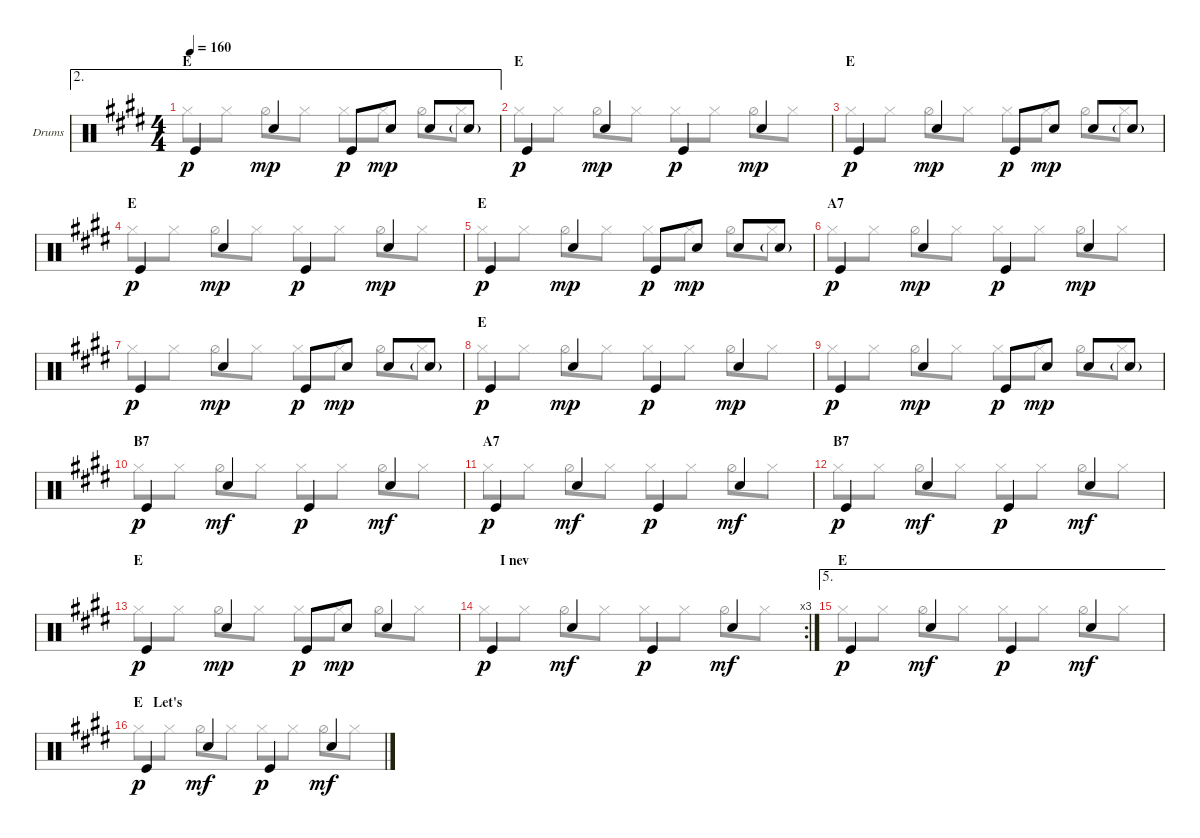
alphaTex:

\defaultSystemsLayout 4
\bracketExtendMode groupsimilarinstruments
\firstSystemTrackNameOrientation horizontal
\otherSystemsTrackNameOrientation horizontal
\track ("Drumkit" "Drums") {instrument percussion}
\staff {score}
\articulation defaults
\voice
\ae 2
\ts (4 4)
\section ("" "E")
\tempo 160
\clef neutral
\ks e "Kick (hit)".4{dy p} "Snare (hit) 2".4{dy mp} "Kick (hit)".8{dy p} "Snare (hit) 2".8{dy mp} "Snare (hit) 2".8 "Snare (hit) 2"{g}.8
|
\section ("" "E")
"Kick (hit)".4{dy p} "Snare (hit) 2".4{dy mp} "Kick (hit)".4{dy p} "Snare (hit) 2".4{dy mp} |
\section ("" "E")
"Kick (hit)".4{dy p} "Snare (hit) 2".4{dy mp} "Kick (hit)".8{dy p} "Snare (hit) 2".8{dy mp} "Snare (hit) 2".8 "Snare (hit) 2"{g}.8 |
\section ("" "E")
"Kick (hit)".4{dy p} "Snare (hit) 2".4{dy mp} "Kick (hit)".4{dy p} "Snare (hit) 2".4{dy mp} |
\section ("" "E")
"Kick (hit)".4{dy p} "Snare (hit) 2".4{dy mp} "Kick (hit)".8{dy p} "Snare (hit) 2".8{dy mp} "Snare (hit) 2".8 "Snare (hit) 2"{g}.8 |
\section ("" "A7")
"Kick (hit)".4{dy p} "Snare (hit) 2".4{dy mp} "Kick (hit)".4{dy p} "Snare (hit) 2".4{dy mp} |
"Kick (hit)".4{dy p} "Snare (hit) 2".4{dy mp} "Kick (hit)".8{dy p} "Snare (hit) 2".8{dy mp} "Snare (hit) 2".8 "Snare (hit) 2"{g}.8 |
\section ("" "E")
"Kick (hit)".4{dy p} "Snare (hit) 2".4{dy mp} "Kick (hit)".4{dy p} "Snare (hit) 2".4{dy mp} |
"Kick (hit)".4{dy p} "Snare (hit) 2".4{dy mp} "Kick (hit)".8{dy p} "Snare (hit) 2".8{dy mp} "Snare (hit) 2".8 "Snare (hit) 2"{g}.8 |
\section ("" "B7")
"Kick (hit)".4{dy p} "Snare (hit) 2".4{dy mf} "Kick (hit)".4{dy p} "Snare (hit) 2".4{dy mf} |
\section ("" "A7")
"Kick (hit)".4{dy p} "Snare (hit) 2".4{dy mf} "Kick (hit)".4{dy p} "Snare (hit) 2".4{dy mf} |
\section ("" "B7")
"Kick (hit)".4{dy p} "Snare (hit) 2".4{dy mf} "Kick (hit)".4{dy p} "Snare (hit) 2".4{dy mf} |
\section ("" "E")
"Kick (hit)".4{dy p} "Snare (hit) 2".4{dy mp} "Kick (hit)".8{dy p} "Snare (hit) 2".8{dy mp} "Snare (hit) 2".4 |
\rc 3
\section ("" "      I nev")
"Kick (hit)".4{dy p} "Snare (hit) 2".4{dy mf} "Kick (hit)".4{dy p} "Snare (hit) 2".4{dy mf} |
\ae 5
\section ("" "E")
"Kick (hit)".4{dy p} "Snare (hit) 2".4{dy mf} "Kick (hit)".4{dy p} "Snare (hit) 2".4{dy mf} |
\section ("" "E   Let's")
"Kick (hit)".4{dy p} "Snare (hit) 2".4{dy mf} "Kick (hit)".4{dy p} "Snare (hit) 2".4{dy mf}
\voice
\clef neutral
\ottava regular
\simile none
\ks e "Hi-Hat (closed)".8{dy p} "Hi-Hat (closed)".8 "Hi-Hat (half)".8 "Hi-Hat (closed)".8 "Hi-Hat (closed)".8 "Hi-Hat (closed)".8 "Hi-Hat (half)".8 "Hi-Hat (closed)".8
|
"Hi-Hat (closed)".8 "Hi-Hat (closed)".8 "Hi-Hat (half)".8 "Hi-Hat (closed)".8 "Hi-Hat (closed)".8 "Hi-Hat (closed)".8 "Hi-Hat (half)".8 "Hi-Hat (closed)".8 |
"Hi-Hat (closed)".8 "Hi-Hat (closed)".8 "Hi-Hat (half)".8 "Hi-Hat (closed)".8 "Hi-Hat (closed)".8 "Hi-Hat (closed)".8 "Hi-Hat (half)".8 "Hi-Hat (closed)".8 |
"Hi-Hat (closed)".8 "Hi-Hat (closed)".8 "Hi-Hat (half)".8 "Hi-Hat (closed)".8 "Hi-Hat (closed)".8 "Hi-Hat (closed)".8 "Hi-Hat (half)".8 "Hi-Hat (closed)".8 |
"Hi-Hat (closed)".8 "Hi-Hat (closed)".8 "Hi-Hat (half)".8 "Hi-Hat (closed)".8 "Hi-Hat (closed)".8 "Hi-Hat (closed)".8 "Hi-Hat (half)".8 "Hi-Hat (closed)".8 |
"Hi-Hat (closed)".8 "Hi-Hat (closed)".8 "Hi-Hat (half)".8 "Hi-Hat (closed)".8 "Hi-Hat (closed)".8 "Hi-Hat (closed)".8 "Hi-Hat (half)".8 "Hi-Hat (closed)".8 |
"Hi-Hat (closed)".8 "Hi-Hat (closed)".8 "Hi-Hat (half)".8 "Hi-Hat (closed)".8 "Hi-Hat (closed)".8 "Hi-Hat (closed)".8 "Hi-Hat (half)".8 "Hi-Hat (closed)".8 |
"Hi-Hat (closed)".8 "Hi-Hat (closed)".8 "Hi-Hat (half)".8 "Hi-Hat (closed)".8 "Hi-Hat (closed)".8 "Hi-Hat (closed)".8 "Hi-Hat (half)".8 "Hi-Hat (closed)".8 |
"Hi-Hat (closed)".8 "Hi-Hat (closed)".8 "Hi-Hat (half)".8 "Hi-Hat (closed)".8 "Hi-Hat (closed)".8 "Hi-Hat (closed)".8 "Hi-Hat (half)".8 "Hi-Hat (closed)".8 |
"Hi-Hat (closed)".8 "Hi-Hat (closed)".8 "Hi-Hat (half)".8 "Hi-Hat (closed)".8 "Hi-Hat (closed)".8 "Hi-Hat (closed)".8 "Hi-Hat (half)".8 "Hi-Hat (closed)".8 |
"Hi-Hat (closed)".8 "Hi-Hat (closed)".8 "Hi-Hat (half)".8 "Hi-Hat (closed)".8 "Hi-Hat (closed)".8 "Hi-Hat (closed)".8 "Hi-Hat (half)".8 "Hi-Hat (closed)".8 |
"Hi-Hat (closed)".8 "Hi-Hat (closed)".8 "Hi-Hat (half)".8 "Hi-Hat (closed)".8 "Hi-Hat (closed)".8 "Hi-Hat (closed)".8 "Hi-Hat (half)".8 "Hi-Hat (closed)".8 |
"Hi-Hat (closed)".8 "Hi-Hat (closed)".8 "Hi-Hat (half)".8 "Hi-Hat (closed)".8 "Hi-Hat (closed)".8 "Hi-Hat (closed)".8 "Hi-Hat (half)".8 "Hi-Hat (closed)".8 |
"Hi-Hat (closed)".8 "Hi-Hat (closed)".8 "Hi-Hat (half)".8 "Hi-Hat (closed)".8 "Hi-Hat (closed)".8 "Hi-Hat (closed)".8 "Hi-Hat (half)".8 "Hi-Hat (closed)".8 |
"Hi-Hat (closed)".8 "Hi-Hat (closed)".8 "Hi-Hat (half)".8 "Hi-Hat (closed)".8 "Hi-Hat (closed)".8 "Hi-Hat (closed)".8 "Hi-Hat (half)".8 "Hi-Hat (closed)".8 |
"Hi-Hat (closed)".8 "Hi-Hat (closed)".8 "Hi-Hat (half)".8 "Hi-Hat (closed)".8 "Hi-Hat (closed)".8 "Hi-Hat (closed)".8 "Hi-Hat (half)".8 "Hi-Hat (closed)".8
